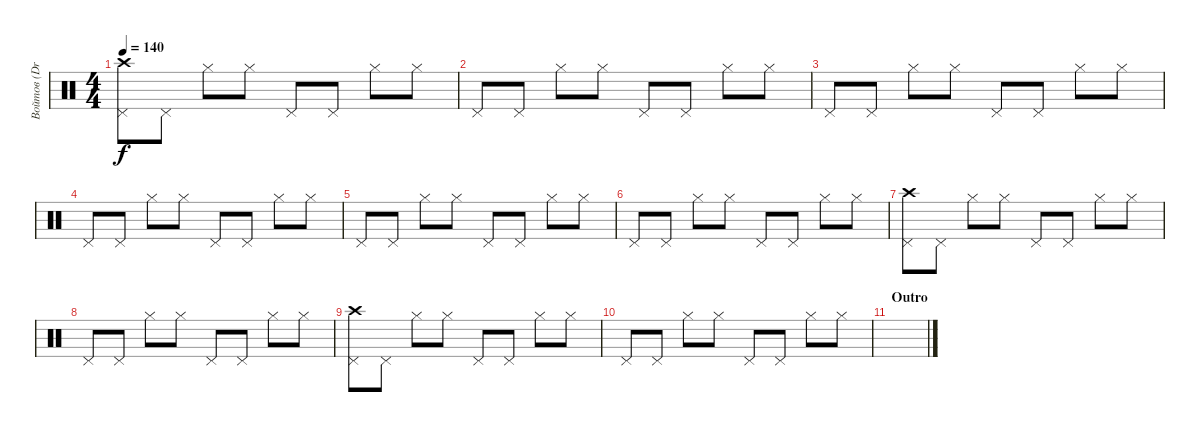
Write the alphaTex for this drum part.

\track ("Войтов (Drums)" "Войтов (Dr") {instrument percussion}
\staff {score}
\articulation defaults
\ts (4 4)
\tempo 140
\clef neutral
\ks c
("Pedal Hi-Hat (hit)" "Crash high (hit)").8{dy f} "Pedal Hi-Hat (hit)".8 "Hi-Hat (closed)".8 "Hi-Hat (closed)".8 "Pedal Hi-Hat (hit)".8 "Pedal Hi-Hat (hit)".8 "Hi-Hat (closed)".8 "Hi-Hat (closed)".8 |
"Pedal Hi-Hat (hit)".8 "Pedal Hi-Hat (hit)".8 "Hi-Hat (closed)".8 "Hi-Hat (closed)".8 "Pedal Hi-Hat (hit)".8 "Pedal Hi-Hat (hit)".8 "Hi-Hat (closed)".8 "Hi-Hat (closed)".8 |
"Pedal Hi-Hat (hit)".8 "Pedal Hi-Hat (hit)".8 "Hi-Hat (closed)".8 "Hi-Hat (closed)".8 "Pedal Hi-Hat (hit)".8 "Pedal Hi-Hat (hit)".8 "Hi-Hat (closed)".8 "Hi-Hat (closed)".8 |
"Pedal Hi-Hat (hit)".8 "Pedal Hi-Hat (hit)".8 "Hi-Hat (closed)".8 "Hi-Hat (closed)".8 "Pedal Hi-Hat (hit)".8 "Pedal Hi-Hat (hit)".8 "Hi-Hat (closed)".8 "Hi-Hat (closed)".8 |
"Pedal Hi-Hat (hit)".8 "Pedal Hi-Hat (hit)".8 "Hi-Hat (closed)".8 "Hi-Hat (closed)".8 "Pedal Hi-Hat (hit)".8 "Pedal Hi-Hat (hit)".8 "Hi-Hat (closed)".8 "Hi-Hat (closed)".8 |
"Pedal Hi-Hat (hit)".8 "Pedal Hi-Hat (hit)".8 "Hi-Hat (closed)".8 "Hi-Hat (closed)".8 "Pedal Hi-Hat (hit)".8 "Pedal Hi-Hat (hit)".8 "Hi-Hat (closed)".8 "Hi-Hat (closed)".8 |
("Pedal Hi-Hat (hit)" "Crash high (hit)").8 "Pedal Hi-Hat (hit)".8 "Hi-Hat (closed)".8 "Hi-Hat (closed)".8 "Pedal Hi-Hat (hit)".8 "Pedal Hi-Hat (hit)".8 "Hi-Hat (closed)".8 "Hi-Hat (closed)".8 |
"Pedal Hi-Hat (hit)".8 "Pedal Hi-Hat (hit)".8 "Hi-Hat (closed)".8 "Hi-Hat (closed)".8 "Pedal Hi-Hat (hit)".8 "Pedal Hi-Hat (hit)".8 "Hi-Hat (closed)".8 "Hi-Hat (closed)".8 |
("Pedal Hi-Hat (hit)" "Crash high (hit)").8 "Pedal Hi-Hat (hit)".8 "Hi-Hat (closed)".8 "Hi-Hat (closed)".8 "Pedal Hi-Hat (hit)".8 "Pedal Hi-Hat (hit)".8 "Hi-Hat (closed)".8 "Hi-Hat (closed)".8 |
"Pedal Hi-Hat (hit)".8 "Pedal Hi-Hat (hit)".8 "Hi-Hat (closed)".8 "Hi-Hat (closed)".8 "Pedal Hi-Hat (hit)".8 "Pedal Hi-Hat (hit)".8 "Hi-Hat (closed)".8 "Hi-Hat (closed)".8 |
\section ("" "Outro")
